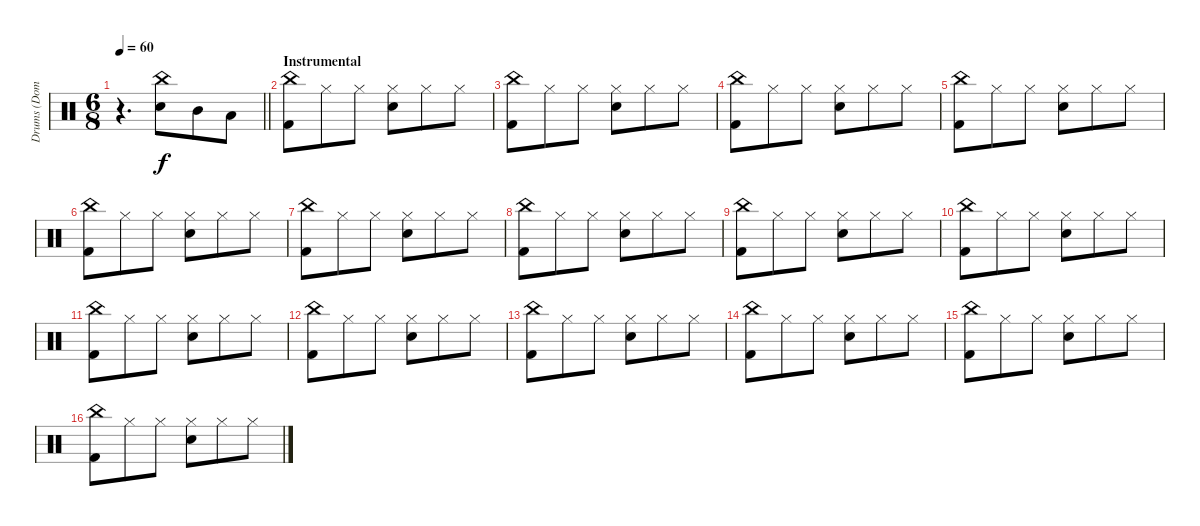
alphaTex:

\track ("Drums (Dom)" "Drums (Dom") {instrument percussion}
\staff {score}
\articulation defaults
\ts (6 8)
\tempo 60
\clef neutral
\barLineRight lightlight
\ks c
r.4{d dy f} ("China (hit)" "Electric Snare (hit)").8 "Mid Tom (hit)".8 "Low Tom (hit)".8 |
\section ("" "Instrumental")
("China (hit)" "Kick (hit) 2").8 "Hi-Hat (closed)".8 "Hi-Hat (closed)".8 ("Hi-Hat (closed)" "Snare (hit) 2").8 "Hi-Hat (closed)".8 "Hi-Hat (closed)".8 |
("China (hit)" "Kick (hit) 2").8 "Hi-Hat (closed)".8 "Hi-Hat (closed)".8 ("Hi-Hat (closed)" "Snare (hit) 2").8 "Hi-Hat (closed)".8 "Hi-Hat (closed)".8 |
("China (hit)" "Kick (hit) 2").8 "Hi-Hat (closed)".8 "Hi-Hat (closed)".8 ("Hi-Hat (closed)" "Snare (hit) 2").8 "Hi-Hat (closed)".8 "Hi-Hat (closed)".8 |
("China (hit)" "Kick (hit) 2").8 "Hi-Hat (closed)".8 "Hi-Hat (closed)".8 ("Hi-Hat (closed)" "Snare (hit) 2").8 "Hi-Hat (closed)".8 "Hi-Hat (closed)".8 |
("China (hit)" "Kick (hit) 2").8 "Hi-Hat (closed)".8 "Hi-Hat (closed)".8 ("Hi-Hat (closed)" "Snare (hit) 2").8 "Hi-Hat (closed)".8 "Hi-Hat (closed)".8 |
("China (hit)" "Kick (hit) 2").8 "Hi-Hat (closed)".8 "Hi-Hat (closed)".8 ("Hi-Hat (closed)" "Snare (hit) 2").8 "Hi-Hat (closed)".8 "Hi-Hat (closed)".8 |
("China (hit)" "Kick (hit) 2").8 "Hi-Hat (closed)".8 "Hi-Hat (closed)".8 ("Hi-Hat (closed)" "Snare (hit) 2").8 "Hi-Hat (closed)".8 "Hi-Hat (closed)".8 |
("China (hit)" "Kick (hit) 2").8 "Hi-Hat (closed)".8 "Hi-Hat (closed)".8 ("Hi-Hat (closed)" "Snare (hit) 2").8 "Hi-Hat (closed)".8 "Hi-Hat (closed)".8 |
("China (hit)" "Kick (hit) 2").8 "Hi-Hat (closed)".8 "Hi-Hat (closed)".8 ("Hi-Hat (closed)" "Snare (hit) 2").8 "Hi-Hat (closed)".8 "Hi-Hat (closed)".8 |
("China (hit)" "Kick (hit) 2").8 "Hi-Hat (closed)".8 "Hi-Hat (closed)".8 ("Hi-Hat (closed)" "Snare (hit) 2").8 "Hi-Hat (closed)".8 "Hi-Hat (closed)".8 |
("China (hit)" "Kick (hit) 2").8 "Hi-Hat (closed)".8 "Hi-Hat (closed)".8 ("Hi-Hat (closed)" "Snare (hit) 2").8 "Hi-Hat (closed)".8 "Hi-Hat (closed)".8 |
("China (hit)" "Kick (hit) 2").8 "Hi-Hat (closed)".8 "Hi-Hat (closed)".8 ("Hi-Hat (closed)" "Snare (hit) 2").8 "Hi-Hat (closed)".8 "Hi-Hat (closed)".8 |
("China (hit)" "Kick (hit) 2").8 "Hi-Hat (closed)".8 "Hi-Hat (closed)".8 ("Hi-Hat (closed)" "Snare (hit) 2").8 "Hi-Hat (closed)".8 "Hi-Hat (closed)".8 |
("China (hit)" "Kick (hit) 2").8 "Hi-Hat (closed)".8 "Hi-Hat (closed)".8 ("Hi-Hat (closed)" "Snare (hit) 2").8 "Hi-Hat (closed)".8 "Hi-Hat (closed)".8 |
("China (hit)" "Kick (hit) 2").8 "Hi-Hat (closed)".8 "Hi-Hat (closed)".8 ("Hi-Hat (closed)" "Snare (hit) 2").8 "Hi-Hat (closed)".8 "Hi-Hat (closed)".8
